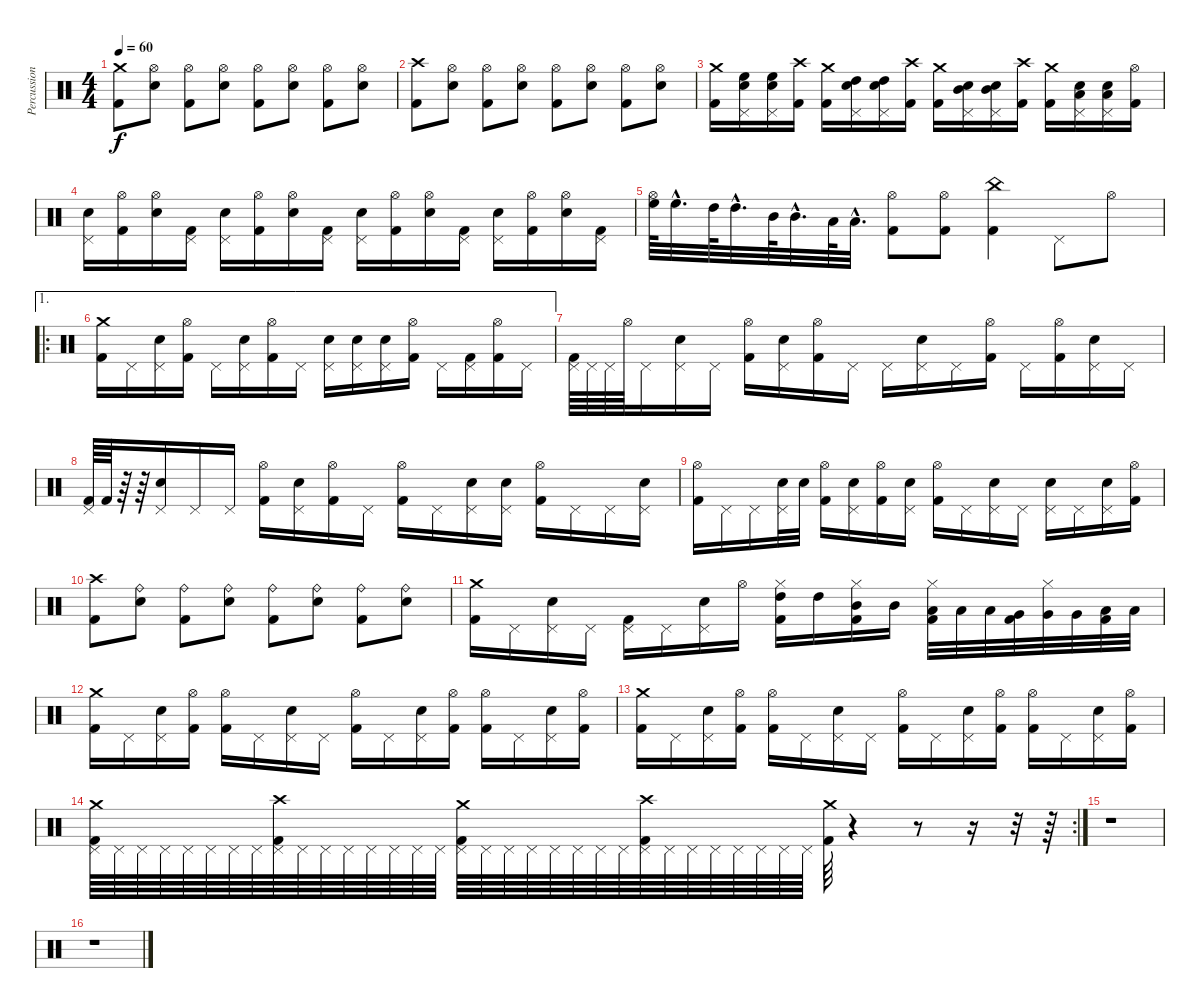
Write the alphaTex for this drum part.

\track ("Percussions" "Percussion") {instrument percussion}
\staff {score}
\articulation defaults
\ts (4 4)
\tempo 60
\clef neutral
\ks c
("Crash medium (hit)" "Kick (hit) 2").8{dy f} ("Hi-Hat (open)" "Electric Snare (hit)").8 ("Hi-Hat (open)" "Kick (hit) 2").8 ("Hi-Hat (open)" "Electric Snare (hit)").8 ("Hi-Hat (open)" "Kick (hit) 2").8 ("Hi-Hat (open)" "Electric Snare (hit)").8 ("Hi-Hat (open)" "Kick (hit) 2").8 ("Hi-Hat (open)" "Electric Snare (hit)").8 |
("Crash high (hit)" "Kick (hit) 2").8 ("Hi-Hat (open)" "Electric Snare (hit)").8 ("Hi-Hat (open)" "Kick (hit) 2").8 ("Hi-Hat (open)" "Electric Snare (hit)").8 ("Hi-Hat (open)" "Kick (hit) 2").8 ("Hi-Hat (open)" "Electric Snare (hit)").8 ("Hi-Hat (open)" "Kick (hit) 2").8 ("Hi-Hat (open)" "Electric Snare (hit)").8 |
("Crash medium (hit)" "Kick (hit) 2").16 ("Pedal Hi-Hat (hit)" "High Floor Tom (hit)" "Electric Snare (hit)").16 ("Pedal Hi-Hat (hit)" "High Floor Tom (hit)" "Electric Snare (hit)").16 ("Crash high (hit)" "Kick (hit) 2").16 ("Crash medium (hit)" "Kick (hit) 2").16 ("Pedal Hi-Hat (hit)" "High Tom (hit)" "Electric Snare (hit)").16 ("Pedal Hi-Hat (hit)" "High Tom (hit)" "Electric Snare (hit)").16 ("Crash high (hit)" "Kick (hit) 2").16 ("Crash medium (hit)" "Kick (hit) 2").16 ("Pedal Hi-Hat (hit)" "Mid Tom (hit)" "Electric Snare (hit)").16 ("Pedal Hi-Hat (hit)" "Mid Tom (hit)" "Electric Snare (hit)").16 ("Crash high (hit)" "Kick (hit) 2").16 ("Crash medium (hit)" "Kick (hit) 2").16 ("Pedal Hi-Hat (hit)" "Low Tom (hit)" "Electric Snare (hit)").16 ("Pedal Hi-Hat (hit)" "Low Tom (hit)" "Electric Snare (hit)").16 ("Hi-Hat (open)" "Kick (hit) 2").16 |
("Pedal Hi-Hat (hit)" "Electric Snare (hit)").16 ("Hi-Hat (open)" "Kick (hit) 2").16 ("Hi-Hat (open)" "Electric Snare (hit)").16 ("Pedal Hi-Hat (hit)" "Kick (hit) 2").16 ("Pedal Hi-Hat (hit)" "Electric Snare (hit)").16 ("Hi-Hat (open)" "Kick (hit) 2").16 ("Hi-Hat (open)" "Electric Snare (hit)").16 ("Pedal Hi-Hat (hit)" "Kick (hit) 2").16 ("Pedal Hi-Hat (hit)" "Electric Snare (hit)").16 ("Hi-Hat (open)" "Kick (hit) 2").16 ("Hi-Hat (open)" "Electric Snare (hit)").16 ("Pedal Hi-Hat (hit)" "Kick (hit) 2").16 ("Pedal Hi-Hat (hit)" "Electric Snare (hit)").16 ("Hi-Hat (open)" "Kick (hit) 2").16 ("Hi-Hat (open)" "Electric Snare (hit)").16 ("Pedal Hi-Hat (hit)" "Kick (hit) 2").16 |
("Hi-Hat (open)" "High Floor Tom (hit)").64 "High Floor Tom (hit)"{hac}.32{d} "High Tom (hit)".64 "High Tom (hit)"{hac}.32{d} "Mid Tom (hit)".64 "Mid Tom (hit)"{hac}.32{d} "Low Tom (hit)".64 "Low Tom (hit)"{hac}.32{d} ("Hi-Hat (open)" "Kick (hit) 2").8 ("Hi-Hat (open)" "Kick (hit) 2").8 ("China (hit)" "Kick (hit) 2").4 "Pedal Hi-Hat (hit)".8 "Hi-Hat (open)".8 |
\ae 1
\ro
("Crash medium (hit)" "Kick (hit) 2").16 "Pedal Hi-Hat (hit)".16 ("Pedal Hi-Hat (hit)" "Electric Snare (hit)").16 ("Hi-Hat (open)" "Kick (hit) 2").16 "Pedal Hi-Hat (hit)".16 ("Pedal Hi-Hat (hit)" "Electric Snare (hit)").16 ("Hi-Hat (open)" "Kick (hit) 2").16 "Pedal Hi-Hat (hit)".16 ("Pedal Hi-Hat (hit)" "Electric Snare (hit)").16 ("Pedal Hi-Hat (hit)" "Electric Snare (hit)").16 ("Pedal Hi-Hat (hit)" "Electric Snare (hit)").16 ("Hi-Hat (open)" "Kick (hit) 2").16 "Pedal Hi-Hat (hit)".16 ("Pedal Hi-Hat (hit)" "Kick (hit) 2").16 ("Hi-Hat (open)" "Kick (hit) 2").16 "Pedal Hi-Hat (hit)".16 |
("Pedal Hi-Hat (hit)" "Kick (hit) 2").64 "Pedal Hi-Hat (hit)".64 "Pedal Hi-Hat (hit)".64 "Hi-Hat (open)".64 "Pedal Hi-Hat (hit)".16 ("Pedal Hi-Hat (hit)" "Electric Snare (hit)").16 "Pedal Hi-Hat (hit)".16 ("Hi-Hat (open)" "Kick (hit) 2").16 ("Pedal Hi-Hat (hit)" "Electric Snare (hit)").16 ("Hi-Hat (open)" "Kick (hit) 2").16 "Pedal Hi-Hat (hit)".16 "Pedal Hi-Hat (hit)".16 ("Pedal Hi-Hat (hit)" "Electric Snare (hit)").16 "Pedal Hi-Hat (hit)".16 ("Hi-Hat (open)" "Kick (hit) 2").16 "Pedal Hi-Hat (hit)".16 ("Hi-Hat (open)" "Kick (hit) 2").16 ("Pedal Hi-Hat (hit)" "Electric Snare (hit)").16 "Pedal Hi-Hat (hit)".16 |
("Pedal Hi-Hat (hit)" "Kick (hit) 2").64 "Kick (hit) 2".64 r.64 r.64 ("Pedal Hi-Hat (hit)" "Electric Snare (hit)").16 "Pedal Hi-Hat (hit)".16 "Pedal Hi-Hat (hit)".16 ("Hi-Hat (open)" "Kick (hit) 2").16 ("Pedal Hi-Hat (hit)" "Electric Snare (hit)").16 ("Hi-Hat (open)" "Kick (hit) 2").16 "Pedal Hi-Hat (hit)".16 ("Hi-Hat (open)" "Kick (hit) 2").16 "Pedal Hi-Hat (hit)".16 ("Pedal Hi-Hat (hit)" "Electric Snare (hit)").16 ("Pedal Hi-Hat (hit)" "Electric Snare (hit)").16 ("Hi-Hat (open)" "Kick (hit) 2").16 "Pedal Hi-Hat (hit)".16 "Pedal Hi-Hat (hit)".16 ("Pedal Hi-Hat (hit)" "Electric Snare (hit)").16 |
("Hi-Hat (open)" "Kick (hit) 2").16 "Pedal Hi-Hat (hit)".16 "Pedal Hi-Hat (hit)".16 ("Pedal Hi-Hat (hit)" "Electric Snare (hit)").32 "Electric Snare (hit)".32 ("Hi-Hat (open)" "Kick (hit) 2").16 ("Pedal Hi-Hat (hit)" "Electric Snare (hit)").16 ("Hi-Hat (open)" "Kick (hit) 2").16 ("Pedal Hi-Hat (hit)" "Electric Snare (hit)").16 ("Hi-Hat (open)" "Kick (hit) 2").16 "Pedal Hi-Hat (hit)".16 ("Pedal Hi-Hat (hit)" "Electric Snare (hit)").16 "Pedal Hi-Hat (hit)".16 ("Pedal Hi-Hat (hit)" "Electric Snare (hit)").16 "Pedal Hi-Hat (hit)".16 ("Pedal Hi-Hat (hit)" "Electric Snare (hit)").16 ("Hi-Hat (open)" "Kick (hit) 2").16 |
("Crash high (hit)" "Kick (hit) 2").8 ("Ride (bell)" "Electric Snare (hit)").8 ("Ride (bell)" "Kick (hit) 2").8 ("Ride (bell)" "Electric Snare (hit)").8 ("Ride (bell)" "Kick (hit) 2").8 ("Ride (bell)" "Electric Snare (hit)").8 ("Ride (bell)" "Kick (hit) 2").8 ("Ride (bell)" "Electric Snare (hit)").8 |
("Crash medium (hit)" "Kick (hit) 2").16 "Pedal Hi-Hat (hit)".16 ("Pedal Hi-Hat (hit)" "Electric Snare (hit)").16 "Pedal Hi-Hat (hit)".16 ("Pedal Hi-Hat (hit)" "Kick (hit) 2").16 "Pedal Hi-Hat (hit)".16 ("Pedal Hi-Hat (hit)" "Electric Snare (hit)").16 "Hi-Hat (open)".16 ("Hi-Hat (closed)" "High Tom (hit)" "Kick (hit) 2").16 "High Tom (hit)".16 ("Hi-Hat (closed)" "Mid Tom (hit)" "Kick (hit) 2").16 "Mid Tom (hit)".16 ("Hi-Hat (closed)" "Low Tom (hit)" "Kick (hit) 2").32 "Low Tom (hit)".32 "Low Tom (hit)".32 ("Very Low Tom (hit)" "Kick (hit) 2").32 ("Hi-Hat (closed)" "Very Low Tom (hit)").32 "Very Low Tom (hit)".32 ("Low Floor Tom (hit)" "Kick (hit) 2").32 "Low Floor Tom (hit)".32 |
("Crash medium (hit)" "Kick (hit) 2").16 "Pedal Hi-Hat (hit)".16 ("Pedal Hi-Hat (hit)" "Electric Snare (hit)").16 ("Hi-Hat (open)" "Kick (hit) 2").16 ("Hi-Hat (open)" "Kick (hit) 2").16 "Pedal Hi-Hat (hit)".16 ("Pedal Hi-Hat (hit)" "Electric Snare (hit)").16 "Pedal Hi-Hat (hit)".16 ("Hi-Hat (open)" "Kick (hit) 2").16 "Pedal Hi-Hat (hit)".16 ("Pedal Hi-Hat (hit)" "Electric Snare (hit)").16 ("Hi-Hat (open)" "Kick (hit) 2").16 ("Hi-Hat (open)" "Kick (hit) 2").16 "Pedal Hi-Hat (hit)".16 ("Pedal Hi-Hat (hit)" "Electric Snare (hit)").16 ("Hi-Hat (open)" "Kick (hit) 2").16 |
("Crash medium (hit)" "Kick (hit) 2").16 "Pedal Hi-Hat (hit)".16 ("Pedal Hi-Hat (hit)" "Electric Snare (hit)").16 ("Hi-Hat (open)" "Kick (hit) 2").16 ("Hi-Hat (open)" "Kick (hit) 2").16 "Pedal Hi-Hat (hit)".16 ("Pedal Hi-Hat (hit)" "Electric Snare (hit)").16 "Pedal Hi-Hat (hit)".16 ("Hi-Hat (open)" "Kick (hit) 2").16 "Pedal Hi-Hat (hit)".16 ("Pedal Hi-Hat (hit)" "Electric Snare (hit)").16 ("Hi-Hat (open)" "Kick (hit) 2").16 ("Hi-Hat (open)" "Kick (hit) 2").16 "Pedal Hi-Hat (hit)".16 ("Pedal Hi-Hat (hit)" "Electric Snare (hit)").16 ("Hi-Hat (open)" "Kick (hit) 2").16 |
\rc 2
("Pedal Hi-Hat (hit)" "Crash medium (hit)" "Kick (hit) 2").64 "Pedal Hi-Hat (hit)".64 "Pedal Hi-Hat (hit)".64 "Pedal Hi-Hat (hit)".64 "Pedal Hi-Hat (hit)".64 "Pedal Hi-Hat (hit)".64 "Pedal Hi-Hat (hit)".64 "Pedal Hi-Hat (hit)".64 ("Pedal Hi-Hat (hit)" "Crash high (hit)" "Kick (hit) 2").64 "Pedal Hi-Hat (hit)".64 "Pedal Hi-Hat (hit)".64 "Pedal Hi-Hat (hit)".64 "Pedal Hi-Hat (hit)".64 "Pedal Hi-Hat (hit)".64 "Pedal Hi-Hat (hit)".64 "Pedal Hi-Hat (hit)".64 ("Pedal Hi-Hat (hit)" "Crash medium (hit)" "Kick (hit) 2").64 "Pedal Hi-Hat (hit)".64 "Pedal Hi-Hat (hit)".64 "Pedal Hi-Hat (hit)".64 "Pedal Hi-Hat (hit)".64 "Pedal Hi-Hat (hit)".64 "Pedal Hi-Hat (hit)".64 "Pedal Hi-Hat (hit)".64 ("Pedal Hi-Hat (hit)" "Crash high (hit)" "Kick (hit) 2").64 "Pedal Hi-Hat (hit)".64 "Pedal Hi-Hat (hit)".64 "Pedal Hi-Hat (hit)".64 "Pedal Hi-Hat (hit)".64 "Pedal Hi-Hat (hit)".64 "Pedal Hi-Hat (hit)".64 "Pedal Hi-Hat (hit)".64 ("Crash medium (hit)" "Kick (hit) 2").64 r.4 r.8 r.16 r.32 r.64 |
r.1 |
r.1
